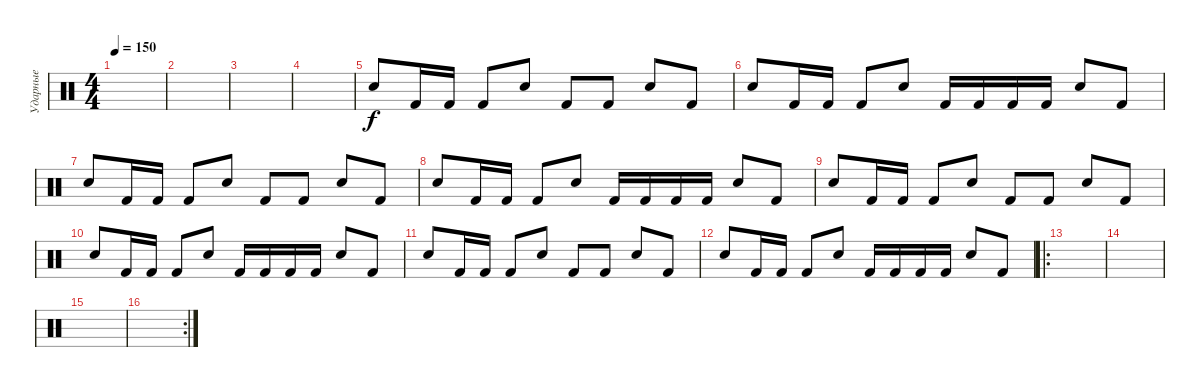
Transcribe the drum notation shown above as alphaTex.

\track ("Ударные" "Ударные") {instrument percussion}
\staff {score}
\articulation defaults
\ts (4 4)
\tempo 150
\clef neutral
\ks c
|
|
|
|
"Snare (hit) 2".8 "Kick (hit) 2".16 "Kick (hit) 2".16 "Kick (hit) 2".8 "Hand Clap (hit)".8 "Kick (hit) 2".8 "Kick (hit) 2".8 "Hand Clap (hit)".8 "Kick (hit) 2".8 |
"Snare (hit) 2".8 "Kick (hit) 2".16 "Kick (hit) 2".16 "Kick (hit) 2".8 "Hand Clap (hit)".8 "Kick (hit) 2".16 "Kick (hit) 2".16 "Kick (hit) 2".16 "Kick (hit) 2".16 "Hand Clap (hit)".8 "Kick (hit) 2".8 |
"Snare (hit) 2".8 "Kick (hit) 2".16 "Kick (hit) 2".16 "Kick (hit) 2".8 "Hand Clap (hit)".8 "Kick (hit) 2".8 "Kick (hit) 2".8 "Hand Clap (hit)".8 "Kick (hit) 2".8 |
"Snare (hit) 2".8 "Kick (hit) 2".16 "Kick (hit) 2".16 "Kick (hit) 2".8 "Hand Clap (hit)".8 "Kick (hit) 2".16 "Kick (hit) 2".16 "Kick (hit) 2".16 "Kick (hit) 2".16 "Hand Clap (hit)".8 "Kick (hit) 2".8 |
"Snare (hit) 2".8 "Kick (hit) 2".16 "Kick (hit) 2".16 "Kick (hit) 2".8 "Hand Clap (hit)".8 "Kick (hit) 2".8 "Kick (hit) 2".8 "Hand Clap (hit)".8 "Kick (hit) 2".8 |
"Snare (hit) 2".8 "Kick (hit) 2".16 "Kick (hit) 2".16 "Kick (hit) 2".8 "Hand Clap (hit)".8 "Kick (hit) 2".16 "Kick (hit) 2".16 "Kick (hit) 2".16 "Kick (hit) 2".16 "Hand Clap (hit)".8 "Kick (hit) 2".8 |
"Snare (hit) 2".8 "Kick (hit) 2".16 "Kick (hit) 2".16 "Kick (hit) 2".8 "Hand Clap (hit)".8 "Kick (hit) 2".8 "Kick (hit) 2".8 "Hand Clap (hit)".8 "Kick (hit) 2".8 |
"Snare (hit) 2".8 "Kick (hit) 2".16 "Kick (hit) 2".16 "Kick (hit) 2".8 "Hand Clap (hit)".8 "Kick (hit) 2".16 "Kick (hit) 2".16 "Kick (hit) 2".16 "Kick (hit) 2".16 "Hand Clap (hit)".8 "Kick (hit) 2".8 |
\ro
|
|
|
\rc 2
